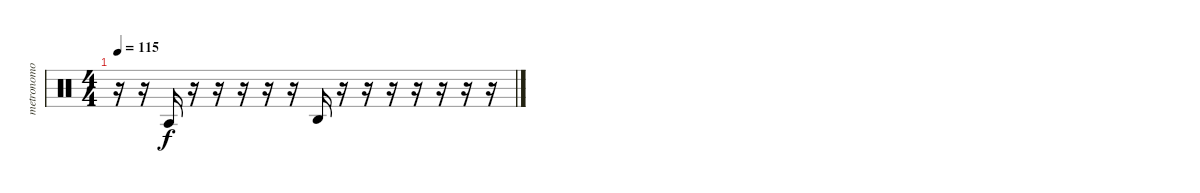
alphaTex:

\track ("metronomo" "metronomo") {instrument percussion}
\staff {score}
\articulation defaults
\ts (4 4)
\tempo 115
\clef neutral
\ks c
r.16{dy f} r.16 "Agogo tow (hit)".16 r.16 r.16 r.16 r.16 r.16 "Agogo high (hit)".16 r.16 r.16 r.16 r.16 r.16 r.16 r.16
